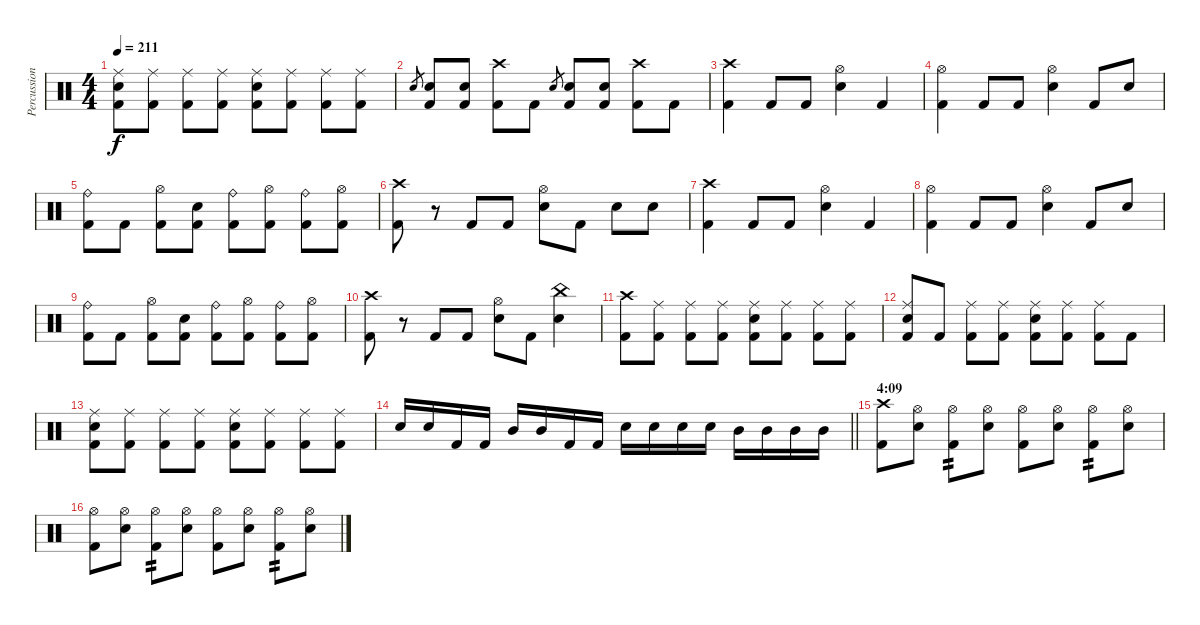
\track ("Percussion" "Percussion") {instrument percussion}
\staff {score}
\articulation defaults
\ts (4 4)
\tempo 211
\clef neutral
\ks c
("Kick (hit) 2" "Ride (middle)" "Electric Snare (hit)").8{dy f} ("Kick (hit) 2" "Ride (middle)").8 ("Kick (hit) 2" "Ride (middle)").8 ("Kick (hit) 2" "Ride (middle)").8 ("Kick (hit) 2" "Ride (middle)" "Electric Snare (hit)").8 ("Kick (hit) 2" "Ride (middle)").8 ("Kick (hit) 2" "Ride (middle)").8 ("Kick (hit) 2" "Ride (middle)").8 |
"Electric Snare (hit)".8{gr} ("Kick (hit) 2" "Electric Snare (hit)").8 ("Kick (hit) 2" "Electric Snare (hit)").8 ("Kick (hit) 2" "Crash high (hit)").8 "Kick (hit) 2".8 "Electric Snare (hit)".8{gr} ("Kick (hit) 2" "Electric Snare (hit)").8 ("Kick (hit) 2" "Electric Snare (hit)").8 ("Kick (hit) 2" "Crash high (hit)").8 "Kick (hit) 2".8 |
("Crash high (hit)" "Kick (hit) 2").4 "Kick (hit) 2".8 "Kick (hit) 2".8 ("Electric Snare (hit)" "Hi-Hat (open)").4 "Kick (hit) 2".4 |
("Hi-Hat (open)" "Kick (hit) 2").4 "Kick (hit) 2".8 "Kick (hit) 2".8 ("Electric Snare (hit)" "Hi-Hat (open)").4 "Kick (hit) 2".8 "Electric Snare (hit)".8 |
("Ride (bell)" "Kick (hit) 2").8 "Kick (hit) 2".8 ("Kick (hit) 2" "Hi-Hat (open)").8 ("Kick (hit) 2" "Electric Snare (hit)").8 ("Kick (hit) 2" "Ride (bell)").8 ("Kick (hit) 2" "Hi-Hat (open)").8 ("Ride (bell)" "Kick (hit) 2").8 ("Kick (hit) 2" "Hi-Hat (open)").8 |
("Kick (hit) 2" "Crash high (hit)").8 r.8 "Kick (hit) 2".8 "Kick (hit) 2".8 ("Hi-Hat (open)" "Electric Snare (hit)").8 "Kick (hit) 2".8 "Electric Snare (hit)".8 "Electric Snare (hit)".8 |
("Crash high (hit)" "Kick (hit) 2").4 "Kick (hit) 2".8 "Kick (hit) 2".8 ("Electric Snare (hit)" "Hi-Hat (open)").4 "Kick (hit) 2".4 |
("Hi-Hat (open)" "Kick (hit) 2").4 "Kick (hit) 2".8 "Kick (hit) 2".8 ("Electric Snare (hit)" "Hi-Hat (open)").4 "Kick (hit) 2".8 "Electric Snare (hit)".8 |
("Ride (bell)" "Kick (hit) 2").8 "Kick (hit) 2".8 ("Kick (hit) 2" "Hi-Hat (open)").8 ("Kick (hit) 2" "Electric Snare (hit)").8 ("Kick (hit) 2" "Ride (bell)").8 ("Kick (hit) 2" "Hi-Hat (open)").8 ("Ride (bell)" "Kick (hit) 2").8 ("Kick (hit) 2" "Hi-Hat (open)").8 |
("Kick (hit) 2" "Crash high (hit)").8 r.8 "Kick (hit) 2".8 "Kick (hit) 2".8 ("Hi-Hat (open)" "Electric Snare (hit)").8 "Kick (hit) 2".8 ("China (hit)" "Electric Snare (hit)").4 |
("Kick (hit) 2" "Crash high (hit)").8 ("Kick (hit) 2" "Ride (middle)").8 ("Kick (hit) 2" "Ride (middle)").8 ("Kick (hit) 2" "Ride (middle)").8 ("Kick (hit) 2" "Ride (middle)" "Electric Snare (hit)").8 ("Kick (hit) 2" "Ride (middle)").8 ("Kick (hit) 2" "Ride (middle)").8 ("Kick (hit) 2" "Ride (middle)").8 |
("Kick (hit) 2" "Ride (middle)" "Electric Snare (hit)").8 "Kick (hit) 2".8 ("Kick (hit) 2" "Ride (middle)").8 ("Kick (hit) 2" "Ride (middle)").8 ("Kick (hit) 2" "Ride (middle)" "Electric Snare (hit)").8 ("Kick (hit) 2" "Ride (middle)").8 ("Kick (hit) 2" "Ride (middle)").8 "Kick (hit) 2".8 |
("Kick (hit) 2" "Ride (middle)" "Electric Snare (hit)").8 ("Kick (hit) 2" "Ride (middle)").8 ("Kick (hit) 2" "Ride (middle)").8 ("Kick (hit) 2" "Ride (middle)").8 ("Kick (hit) 2" "Ride (middle)" "Electric Snare (hit)").8 ("Kick (hit) 2" "Ride (middle)").8 ("Kick (hit) 2" "Ride (middle)").8 ("Kick (hit) 2" "Ride (middle)").8 |
\barLineRight lightlight "Electric Snare (hit)".16 "Electric Snare (hit)".16 "Kick (hit) 2".16 "Kick (hit) 2".16 "Mid Tom (hit)".16 "Mid Tom (hit)".16 "Kick (hit) 2".16 "Kick (hit) 2".16 "Electric Snare (hit)".16 "Electric Snare (hit)".16 "Electric Snare (hit)".16 "Electric Snare (hit)".16 "Mid Tom (hit)".16 "Mid Tom (hit)".16 "Mid Tom (hit)".16 "Mid Tom (hit)".16
|
\section ("" "4:09")
("Crash high (hit)" "Kick (hit) 2").8 ("Hi-Hat (open)" "Electric Snare (hit)").8 ("Hi-Hat (open)" "Kick (hit) 2").8{tp 2} ("Hi-Hat (open)" "Electric Snare (hit)").8 ("Hi-Hat (open)" "Kick (hit) 2").8 ("Hi-Hat (open)" "Electric Snare (hit)").8 ("Hi-Hat (open)" "Kick (hit) 2").8{tp 2} ("Hi-Hat (open)" "Electric Snare (hit)").8 |
("Hi-Hat (open)" "Kick (hit) 2").8 ("Hi-Hat (open)" "Electric Snare (hit)").8 ("Hi-Hat (open)" "Kick (hit) 2").8{tp 2} ("Hi-Hat (open)" "Electric Snare (hit)").8 ("Hi-Hat (open)" "Kick (hit) 2").8 ("Hi-Hat (open)" "Electric Snare (hit)").8 ("Hi-Hat (open)" "Kick (hit) 2").8{tp 2} ("Hi-Hat (open)" "Electric Snare (hit)").8
